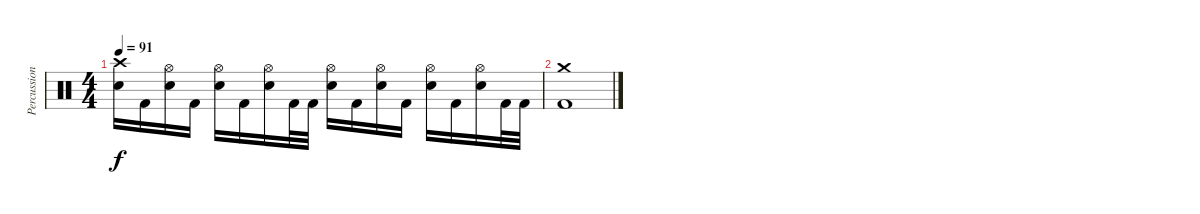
\track ("Percussion" "Percussion") {instrument percussion}
\staff {score}
\articulation defaults
\ts (4 4)
\tempo 91
\clef neutral
\ks c
("Crash high (hit)" "Electric Snare (hit)").16{dy f} "Kick (hit) 2".16 ("Hi-Hat (open)" "Electric Snare (hit)").16 "Kick (hit) 2".16 ("Hi-Hat (open)" "Electric Snare (hit)").16 "Kick (hit) 2".16 ("Hi-Hat (open)" "Electric Snare (hit)").16 "Kick (hit) 2".32 "Kick (hit) 2".32 ("Hi-Hat (open)" "Electric Snare (hit)").16 "Kick (hit) 2".16 ("Hi-Hat (open)" "Electric Snare (hit)").16 "Kick (hit) 2".16 ("Hi-Hat (open)" "Electric Snare (hit)").16 "Kick (hit) 2".16 ("Hi-Hat (open)" "Electric Snare (hit)").16 "Kick (hit) 2".32 "Kick (hit) 2".32 |
("Crash medium (hit)" "Kick (hit) 2").1
